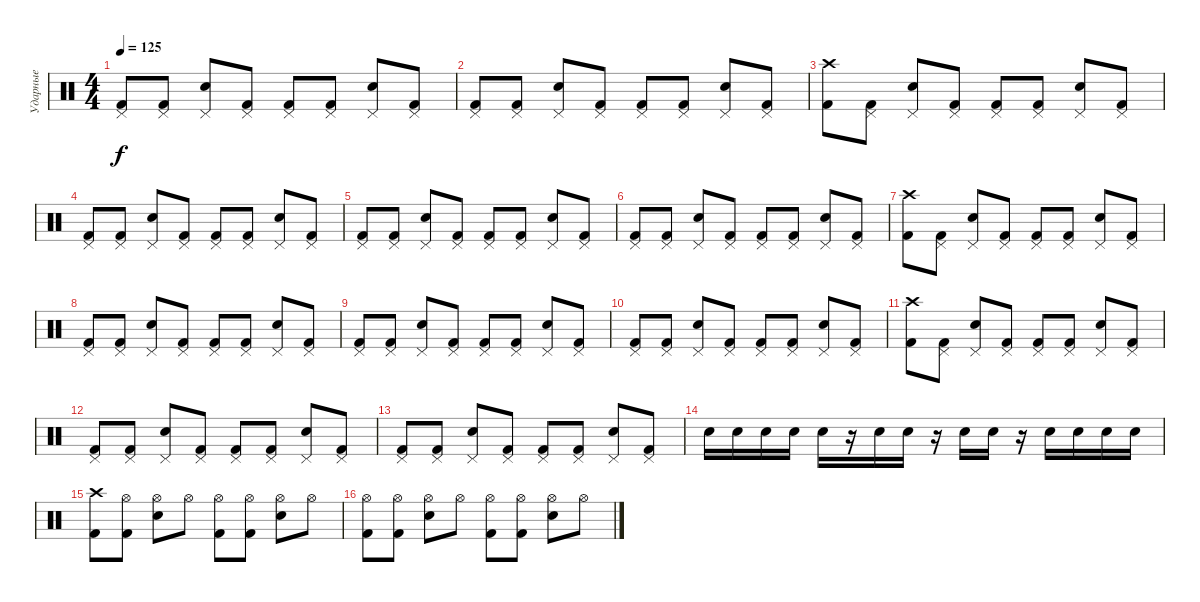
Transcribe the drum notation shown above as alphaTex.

\track ("Ударные" "Ударные") {instrument percussion}
\staff {score}
\articulation defaults
\ts (4 4)
\tempo 125
\clef neutral
\ks c
("Pedal Hi-Hat (hit)" "Kick (hit) 2").8{dy f} ("Pedal Hi-Hat (hit)" "Kick (hit) 2").8 ("Pedal Hi-Hat (hit)" "Snare (hit) 2").8 ("Pedal Hi-Hat (hit)" "Kick (hit) 2").8 ("Pedal Hi-Hat (hit)" "Kick (hit) 2").8 ("Pedal Hi-Hat (hit)" "Kick (hit) 2").8 ("Pedal Hi-Hat (hit)" "Snare (hit) 2").8 ("Pedal Hi-Hat (hit)" "Kick (hit) 2").8 |
("Pedal Hi-Hat (hit)" "Kick (hit) 2").8 ("Pedal Hi-Hat (hit)" "Kick (hit) 2").8 ("Pedal Hi-Hat (hit)" "Snare (hit) 2").8 ("Pedal Hi-Hat (hit)" "Kick (hit) 2").8 ("Pedal Hi-Hat (hit)" "Kick (hit) 2").8 ("Pedal Hi-Hat (hit)" "Kick (hit) 2").8 ("Pedal Hi-Hat (hit)" "Snare (hit) 2").8 ("Pedal Hi-Hat (hit)" "Kick (hit) 2").8 |
("Crash high (hit)" "Kick (hit) 2").8 ("Pedal Hi-Hat (hit)" "Kick (hit) 2").8 ("Pedal Hi-Hat (hit)" "Snare (hit) 2").8 ("Pedal Hi-Hat (hit)" "Kick (hit) 2").8 ("Pedal Hi-Hat (hit)" "Kick (hit) 2").8 ("Pedal Hi-Hat (hit)" "Kick (hit) 2").8 ("Pedal Hi-Hat (hit)" "Snare (hit) 2").8 ("Pedal Hi-Hat (hit)" "Kick (hit) 2").8 |
("Pedal Hi-Hat (hit)" "Kick (hit) 2").8 ("Pedal Hi-Hat (hit)" "Kick (hit) 2").8 ("Pedal Hi-Hat (hit)" "Snare (hit) 2").8 ("Pedal Hi-Hat (hit)" "Kick (hit) 2").8 ("Pedal Hi-Hat (hit)" "Kick (hit) 2").8 ("Pedal Hi-Hat (hit)" "Kick (hit) 2").8 ("Pedal Hi-Hat (hit)" "Snare (hit) 2").8 ("Pedal Hi-Hat (hit)" "Kick (hit) 2").8 |
("Pedal Hi-Hat (hit)" "Kick (hit) 2").8 ("Pedal Hi-Hat (hit)" "Kick (hit) 2").8 ("Pedal Hi-Hat (hit)" "Snare (hit) 2").8 ("Pedal Hi-Hat (hit)" "Kick (hit) 2").8 ("Pedal Hi-Hat (hit)" "Kick (hit) 2").8 ("Pedal Hi-Hat (hit)" "Kick (hit) 2").8 ("Pedal Hi-Hat (hit)" "Snare (hit) 2").8 ("Pedal Hi-Hat (hit)" "Kick (hit) 2").8 |
("Pedal Hi-Hat (hit)" "Kick (hit) 2").8 ("Pedal Hi-Hat (hit)" "Kick (hit) 2").8 ("Pedal Hi-Hat (hit)" "Snare (hit) 2").8 ("Pedal Hi-Hat (hit)" "Kick (hit) 2").8 ("Pedal Hi-Hat (hit)" "Kick (hit) 2").8 ("Pedal Hi-Hat (hit)" "Kick (hit) 2").8 ("Pedal Hi-Hat (hit)" "Snare (hit) 2").8 ("Pedal Hi-Hat (hit)" "Kick (hit) 2").8 |
("Crash high (hit)" "Kick (hit) 2").8 ("Pedal Hi-Hat (hit)" "Kick (hit) 2").8 ("Pedal Hi-Hat (hit)" "Snare (hit) 2").8 ("Pedal Hi-Hat (hit)" "Kick (hit) 2").8 ("Pedal Hi-Hat (hit)" "Kick (hit) 2").8 ("Pedal Hi-Hat (hit)" "Kick (hit) 2").8 ("Pedal Hi-Hat (hit)" "Snare (hit) 2").8 ("Pedal Hi-Hat (hit)" "Kick (hit) 2").8 |
("Pedal Hi-Hat (hit)" "Kick (hit) 2").8 ("Pedal Hi-Hat (hit)" "Kick (hit) 2").8 ("Pedal Hi-Hat (hit)" "Snare (hit) 2").8 ("Pedal Hi-Hat (hit)" "Kick (hit) 2").8 ("Pedal Hi-Hat (hit)" "Kick (hit) 2").8 ("Pedal Hi-Hat (hit)" "Kick (hit) 2").8 ("Pedal Hi-Hat (hit)" "Snare (hit) 2").8 ("Pedal Hi-Hat (hit)" "Kick (hit) 2").8 |
("Pedal Hi-Hat (hit)" "Kick (hit) 2").8 ("Pedal Hi-Hat (hit)" "Kick (hit) 2").8 ("Pedal Hi-Hat (hit)" "Snare (hit) 2").8 ("Pedal Hi-Hat (hit)" "Kick (hit) 2").8 ("Pedal Hi-Hat (hit)" "Kick (hit) 2").8 ("Pedal Hi-Hat (hit)" "Kick (hit) 2").8 ("Pedal Hi-Hat (hit)" "Snare (hit) 2").8 ("Pedal Hi-Hat (hit)" "Kick (hit) 2").8 |
("Pedal Hi-Hat (hit)" "Kick (hit) 2").8 ("Pedal Hi-Hat (hit)" "Kick (hit) 2").8 ("Pedal Hi-Hat (hit)" "Snare (hit) 2").8 ("Pedal Hi-Hat (hit)" "Kick (hit) 2").8 ("Pedal Hi-Hat (hit)" "Kick (hit) 2").8 ("Pedal Hi-Hat (hit)" "Kick (hit) 2").8 ("Pedal Hi-Hat (hit)" "Snare (hit) 2").8 ("Pedal Hi-Hat (hit)" "Kick (hit) 2").8 |
("Crash high (hit)" "Kick (hit) 2").8 ("Pedal Hi-Hat (hit)" "Kick (hit) 2").8 ("Pedal Hi-Hat (hit)" "Snare (hit) 2").8 ("Pedal Hi-Hat (hit)" "Kick (hit) 2").8 ("Pedal Hi-Hat (hit)" "Kick (hit) 2").8 ("Pedal Hi-Hat (hit)" "Kick (hit) 2").8 ("Pedal Hi-Hat (hit)" "Snare (hit) 2").8 ("Pedal Hi-Hat (hit)" "Kick (hit) 2").8 |
("Pedal Hi-Hat (hit)" "Kick (hit) 2").8 ("Pedal Hi-Hat (hit)" "Kick (hit) 2").8 ("Pedal Hi-Hat (hit)" "Snare (hit) 2").8 ("Pedal Hi-Hat (hit)" "Kick (hit) 2").8 ("Pedal Hi-Hat (hit)" "Kick (hit) 2").8 ("Pedal Hi-Hat (hit)" "Kick (hit) 2").8 ("Pedal Hi-Hat (hit)" "Snare (hit) 2").8 ("Pedal Hi-Hat (hit)" "Kick (hit) 2").8 |
("Pedal Hi-Hat (hit)" "Kick (hit) 2").8 ("Pedal Hi-Hat (hit)" "Kick (hit) 2").8 ("Pedal Hi-Hat (hit)" "Snare (hit) 2").8 ("Pedal Hi-Hat (hit)" "Kick (hit) 2").8 ("Pedal Hi-Hat (hit)" "Kick (hit) 2").8 ("Pedal Hi-Hat (hit)" "Kick (hit) 2").8 ("Pedal Hi-Hat (hit)" "Snare (hit) 2").8 ("Pedal Hi-Hat (hit)" "Kick (hit) 2").8 |
"Snare (hit) 2".16 "Snare (hit) 2".16 "Snare (hit) 2".16 "Snare (hit) 2".16 "Snare (hit) 2".16 r.16 "Snare (hit) 2".16 "Snare (hit) 2".16 r.16 "Snare (hit) 2".16 "Snare (hit) 2".16 r.16 "Snare (hit) 2".16 "Snare (hit) 2".16 "Snare (hit) 2".16 "Snare (hit) 2".16 |
("Crash high (hit)" "Kick (hit) 2").8 ("Hi-Hat (open)" "Kick (hit) 2").8 ("Hi-Hat (open)" "Snare (hit) 2").8 "Hi-Hat (open)".8 ("Hi-Hat (open)" "Kick (hit) 2").8 ("Hi-Hat (open)" "Kick (hit) 2").8 ("Hi-Hat (open)" "Snare (hit) 2").8 "Hi-Hat (open)".8 |
("Hi-Hat (open)" "Kick (hit) 2").8 ("Hi-Hat (open)" "Kick (hit) 2").8 ("Hi-Hat (open)" "Snare (hit) 2").8 "Hi-Hat (open)".8 ("Hi-Hat (open)" "Kick (hit) 2").8 ("Hi-Hat (open)" "Kick (hit) 2").8 ("Hi-Hat (open)" "Snare (hit) 2").8 "Hi-Hat (open)".8
